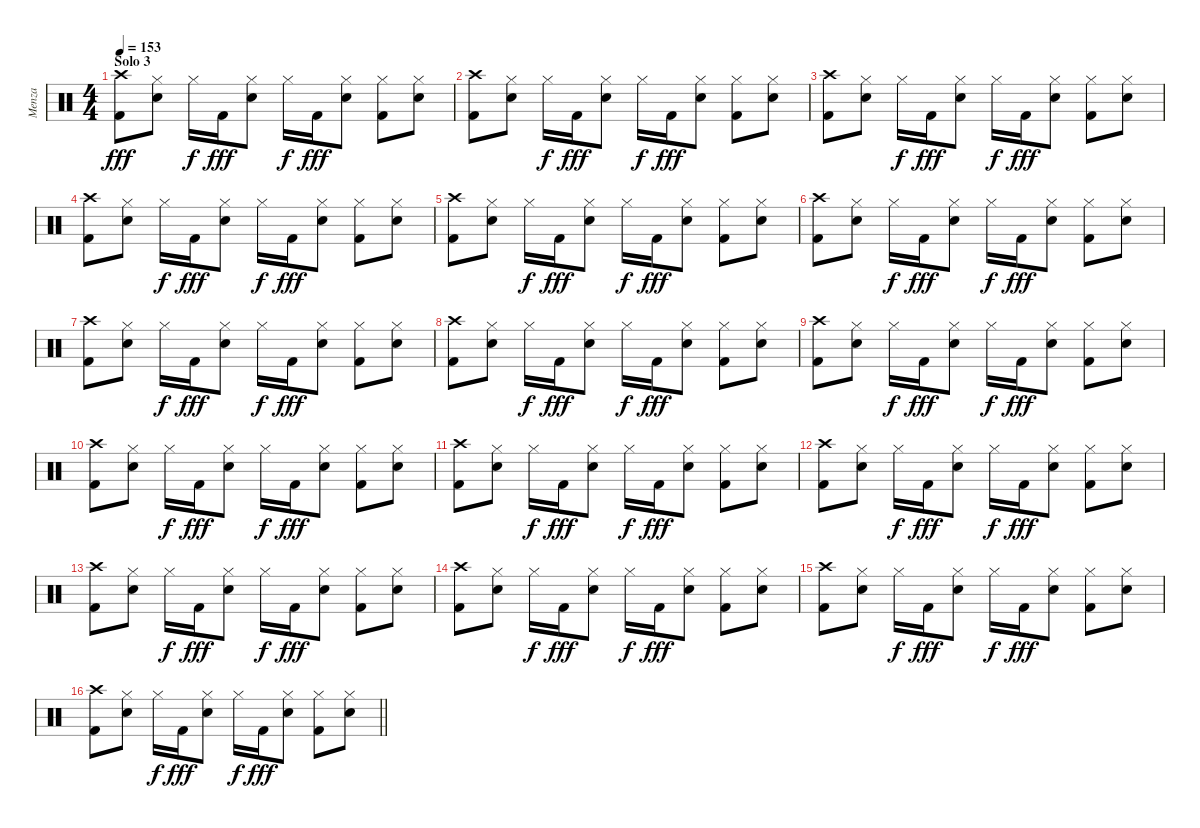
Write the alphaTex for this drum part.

\track ("Menza" "Menza") {instrument percussion}
\staff {score}
\articulation defaults
\ts (4 4)
\section ("" "Solo 3")
\tempo 153
\clef neutral
\ks c
("Crash high (hit)" "Kick (hit) 2").8{dy fff} ("Hi-Hat (closed)" "Snare (hit) 2").8 "Hi-Hat (closed)".16{dy f} "Kick (hit) 2".16{dy fff} ("Hi-Hat (closed)" "Snare (hit) 2").8 "Hi-Hat (closed)".16{dy f} "Kick (hit) 2".16{dy fff} ("Hi-Hat (closed)" "Snare (hit) 2").8 ("Hi-Hat (closed)" "Kick (hit) 2").8 ("Hi-Hat (closed)" "Snare (hit) 2").8 |
("Crash high (hit)" "Kick (hit) 2").8 ("Hi-Hat (closed)" "Snare (hit) 2").8 "Hi-Hat (closed)".16{dy f} "Kick (hit) 2".16{dy fff} ("Hi-Hat (closed)" "Snare (hit) 2").8 "Hi-Hat (closed)".16{dy f} "Kick (hit) 2".16{dy fff} ("Hi-Hat (closed)" "Snare (hit) 2").8 ("Hi-Hat (closed)" "Kick (hit) 2").8 ("Hi-Hat (closed)" "Snare (hit) 2").8 |
("Crash high (hit)" "Kick (hit) 2").8 ("Hi-Hat (closed)" "Snare (hit) 2").8 "Hi-Hat (closed)".16{dy f} "Kick (hit) 2".16{dy fff} ("Hi-Hat (closed)" "Snare (hit) 2").8 "Hi-Hat (closed)".16{dy f} "Kick (hit) 2".16{dy fff} ("Hi-Hat (closed)" "Snare (hit) 2").8 ("Hi-Hat (closed)" "Kick (hit) 2").8 ("Hi-Hat (closed)" "Snare (hit) 2").8 |
("Crash high (hit)" "Kick (hit) 2").8 ("Hi-Hat (closed)" "Snare (hit) 2").8 "Hi-Hat (closed)".16{dy f} "Kick (hit) 2".16{dy fff} ("Hi-Hat (closed)" "Snare (hit) 2").8 "Hi-Hat (closed)".16{dy f} "Kick (hit) 2".16{dy fff} ("Hi-Hat (closed)" "Snare (hit) 2").8 ("Hi-Hat (closed)" "Kick (hit) 2").8 ("Hi-Hat (closed)" "Snare (hit) 2").8 |
("Crash high (hit)" "Kick (hit) 2").8 ("Hi-Hat (closed)" "Snare (hit) 2").8 "Hi-Hat (closed)".16{dy f} "Kick (hit) 2".16{dy fff} ("Hi-Hat (closed)" "Snare (hit) 2").8 "Hi-Hat (closed)".16{dy f} "Kick (hit) 2".16{dy fff} ("Hi-Hat (closed)" "Snare (hit) 2").8 ("Hi-Hat (closed)" "Kick (hit) 2").8 ("Hi-Hat (closed)" "Snare (hit) 2").8 |
("Crash high (hit)" "Kick (hit) 2").8 ("Hi-Hat (closed)" "Snare (hit) 2").8 "Hi-Hat (closed)".16{dy f} "Kick (hit) 2".16{dy fff} ("Hi-Hat (closed)" "Snare (hit) 2").8 "Hi-Hat (closed)".16{dy f} "Kick (hit) 2".16{dy fff} ("Hi-Hat (closed)" "Snare (hit) 2").8 ("Hi-Hat (closed)" "Kick (hit) 2").8 ("Hi-Hat (closed)" "Snare (hit) 2").8 |
("Crash high (hit)" "Kick (hit) 2").8 ("Hi-Hat (closed)" "Snare (hit) 2").8 "Hi-Hat (closed)".16{dy f} "Kick (hit) 2".16{dy fff} ("Hi-Hat (closed)" "Snare (hit) 2").8 "Hi-Hat (closed)".16{dy f} "Kick (hit) 2".16{dy fff} ("Hi-Hat (closed)" "Snare (hit) 2").8 ("Hi-Hat (closed)" "Kick (hit) 2").8 ("Hi-Hat (closed)" "Snare (hit) 2").8 |
("Crash high (hit)" "Kick (hit) 2").8 ("Hi-Hat (closed)" "Snare (hit) 2").8 "Hi-Hat (closed)".16{dy f} "Kick (hit) 2".16{dy fff} ("Hi-Hat (closed)" "Snare (hit) 2").8 "Hi-Hat (closed)".16{dy f} "Kick (hit) 2".16{dy fff} ("Hi-Hat (closed)" "Snare (hit) 2").8 ("Hi-Hat (closed)" "Kick (hit) 2").8 ("Hi-Hat (closed)" "Snare (hit) 2").8 |
("Crash high (hit)" "Kick (hit) 2").8 ("Hi-Hat (closed)" "Snare (hit) 2").8 "Hi-Hat (closed)".16{dy f} "Kick (hit) 2".16{dy fff} ("Hi-Hat (closed)" "Snare (hit) 2").8 "Hi-Hat (closed)".16{dy f} "Kick (hit) 2".16{dy fff} ("Hi-Hat (closed)" "Snare (hit) 2").8 ("Hi-Hat (closed)" "Kick (hit) 2").8 ("Hi-Hat (closed)" "Snare (hit) 2").8 |
("Crash high (hit)" "Kick (hit) 2").8 ("Hi-Hat (closed)" "Snare (hit) 2").8 "Hi-Hat (closed)".16{dy f} "Kick (hit) 2".16{dy fff} ("Hi-Hat (closed)" "Snare (hit) 2").8 "Hi-Hat (closed)".16{dy f} "Kick (hit) 2".16{dy fff} ("Hi-Hat (closed)" "Snare (hit) 2").8 ("Hi-Hat (closed)" "Kick (hit) 2").8 ("Hi-Hat (closed)" "Snare (hit) 2").8 |
("Crash high (hit)" "Kick (hit) 2").8 ("Hi-Hat (closed)" "Snare (hit) 2").8 "Hi-Hat (closed)".16{dy f} "Kick (hit) 2".16{dy fff} ("Hi-Hat (closed)" "Snare (hit) 2").8 "Hi-Hat (closed)".16{dy f} "Kick (hit) 2".16{dy fff} ("Hi-Hat (closed)" "Snare (hit) 2").8 ("Hi-Hat (closed)" "Kick (hit) 2").8 ("Hi-Hat (closed)" "Snare (hit) 2").8 |
("Crash high (hit)" "Kick (hit) 2").8 ("Hi-Hat (closed)" "Snare (hit) 2").8 "Hi-Hat (closed)".16{dy f} "Kick (hit) 2".16{dy fff} ("Hi-Hat (closed)" "Snare (hit) 2").8 "Hi-Hat (closed)".16{dy f} "Kick (hit) 2".16{dy fff} ("Hi-Hat (closed)" "Snare (hit) 2").8 ("Hi-Hat (closed)" "Kick (hit) 2").8 ("Hi-Hat (closed)" "Snare (hit) 2").8 |
("Crash high (hit)" "Kick (hit) 2").8 ("Hi-Hat (closed)" "Snare (hit) 2").8 "Hi-Hat (closed)".16{dy f} "Kick (hit) 2".16{dy fff} ("Hi-Hat (closed)" "Snare (hit) 2").8 "Hi-Hat (closed)".16{dy f} "Kick (hit) 2".16{dy fff} ("Hi-Hat (closed)" "Snare (hit) 2").8 ("Hi-Hat (closed)" "Kick (hit) 2").8 ("Hi-Hat (closed)" "Snare (hit) 2").8 |
("Crash high (hit)" "Kick (hit) 2").8 ("Hi-Hat (closed)" "Snare (hit) 2").8 "Hi-Hat (closed)".16{dy f} "Kick (hit) 2".16{dy fff} ("Hi-Hat (closed)" "Snare (hit) 2").8 "Hi-Hat (closed)".16{dy f} "Kick (hit) 2".16{dy fff} ("Hi-Hat (closed)" "Snare (hit) 2").8 ("Hi-Hat (closed)" "Kick (hit) 2").8 ("Hi-Hat (closed)" "Snare (hit) 2").8 |
("Crash high (hit)" "Kick (hit) 2").8 ("Hi-Hat (closed)" "Snare (hit) 2").8 "Hi-Hat (closed)".16{dy f} "Kick (hit) 2".16{dy fff} ("Hi-Hat (closed)" "Snare (hit) 2").8 "Hi-Hat (closed)".16{dy f} "Kick (hit) 2".16{dy fff} ("Hi-Hat (closed)" "Snare (hit) 2").8 ("Hi-Hat (closed)" "Kick (hit) 2").8 ("Hi-Hat (closed)" "Snare (hit) 2").8 |
\barLineRight lightlight
("Crash high (hit)" "Kick (hit) 2").8 ("Hi-Hat (closed)" "Snare (hit) 2").8 "Hi-Hat (closed)".16{dy f} "Kick (hit) 2".16{dy fff} ("Hi-Hat (closed)" "Snare (hit) 2").8 "Hi-Hat (closed)".16{dy f} "Kick (hit) 2".16{dy fff} ("Hi-Hat (closed)" "Snare (hit) 2").8 ("Hi-Hat (closed)" "Kick (hit) 2").8 ("Hi-Hat (closed)" "Snare (hit) 2").8
